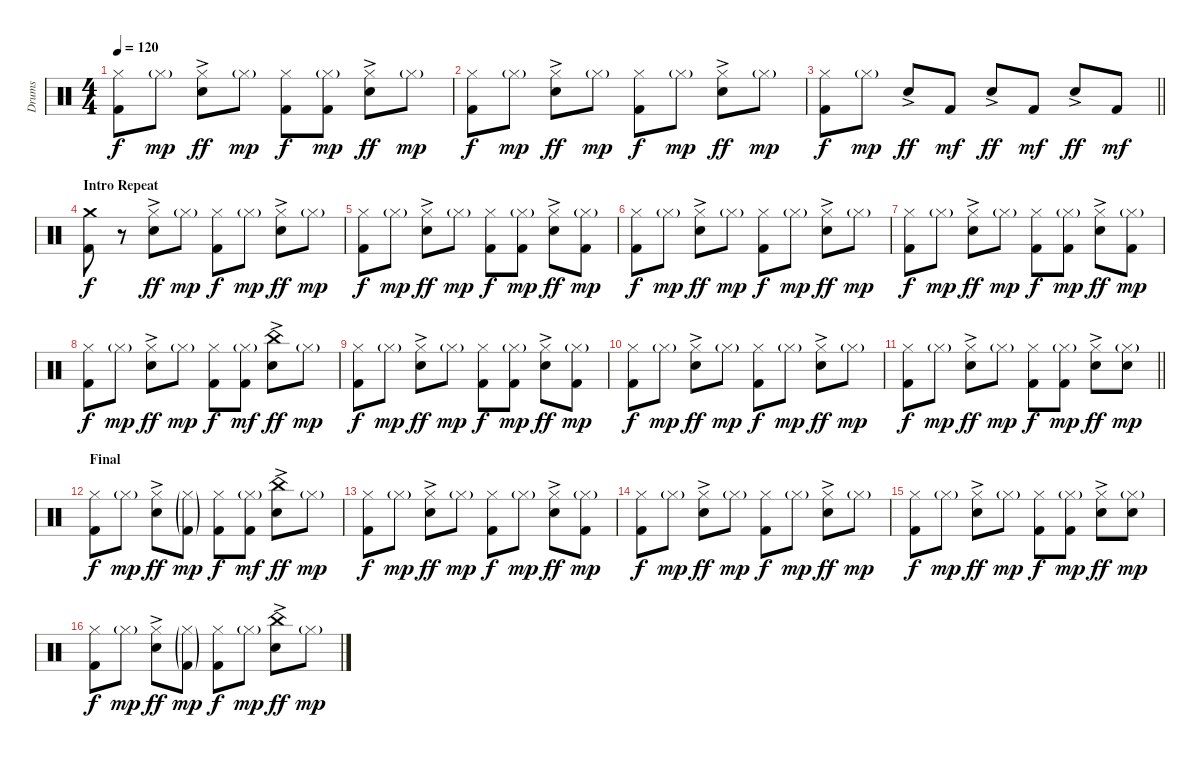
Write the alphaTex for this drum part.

\track ("Drums" "Drums") {instrument percussion}
\staff {score}
\articulation defaults
\ts (4 4)
\tempo 120
\clef neutral
\ks c
("Hi-Hat (closed)" "Kick (hit) 2").8{dy f} "Hi-Hat (closed)"{g}.8{dy mp} ("Hi-Hat (closed)" "Snare (hit) 2"{ac}).8{dy ff} "Hi-Hat (closed)"{g}.8{dy mp} ("Hi-Hat (closed)" "Kick (hit) 2").8{dy f} ("Hi-Hat (closed)"{g} "Kick (hit) 2").8{dy mp} ("Hi-Hat (closed)" "Snare (hit) 2"{ac}).8{dy ff} "Hi-Hat (closed)"{g}.8{dy mp} |
("Hi-Hat (closed)" "Kick (hit) 2").8{dy f} "Hi-Hat (closed)"{g}.8{dy mp} ("Hi-Hat (closed)" "Snare (hit) 2"{ac}).8{dy ff} "Hi-Hat (closed)"{g}.8{dy mp} ("Hi-Hat (closed)" "Kick (hit) 2").8{dy f} "Hi-Hat (closed)"{g}.8{dy mp} ("Hi-Hat (closed)" "Snare (hit) 2"{ac}).8{dy ff} "Hi-Hat (closed)"{g}.8{dy mp} |
\barLineRight lightlight
("Hi-Hat (closed)" "Kick (hit) 2").8{dy f} "Hi-Hat (closed)"{g}.8{dy mp} "Snare (hit) 2"{ac}.8{dy ff} "Kick (hit) 2".8{dy mf} "Snare (hit) 2"{ac}.8{dy ff} "Kick (hit) 2".8{dy mf} "Snare (hit) 2"{ac}.8{dy ff} "Kick (hit) 2".8{dy mf} |
\section ("" "Intro Repeat")
("Crash medium (hit)" "Kick (hit) 2").8{dy f} r.8 ("Hi-Hat (closed)" "Snare (hit) 2"{ac}).8{dy ff} "Hi-Hat (closed)"{g}.8{dy mp} ("Hi-Hat (closed)" "Kick (hit) 2").8{dy f} "Hi-Hat (closed)"{g}.8{dy mp} ("Hi-Hat (closed)" "Snare (hit) 2"{ac}).8{dy ff} "Hi-Hat (closed)"{g}.8{dy mp} |
("Hi-Hat (closed)" "Kick (hit) 2").8{dy f} "Hi-Hat (closed)"{g}.8{dy mp} ("Hi-Hat (closed)" "Snare (hit) 2"{ac}).8{dy ff} "Hi-Hat (closed)"{g}.8{dy mp} ("Hi-Hat (closed)" "Kick (hit) 2").8{dy f} ("Hi-Hat (closed)"{g} "Kick (hit) 2").8{dy mp} ("Hi-Hat (closed)" "Snare (hit) 2"{ac}).8{dy ff} ("Hi-Hat (closed)"{g} "Kick (hit) 2").8{dy mp} |
("Hi-Hat (closed)" "Kick (hit) 2").8{dy f} "Hi-Hat (closed)"{g}.8{dy mp} ("Hi-Hat (closed)" "Snare (hit) 2"{ac}).8{dy ff} "Hi-Hat (closed)"{g}.8{dy mp} ("Hi-Hat (closed)" "Kick (hit) 2").8{dy f} "Hi-Hat (closed)"{g}.8{dy mp} ("Hi-Hat (closed)" "Snare (hit) 2"{ac}).8{dy ff} "Hi-Hat (closed)"{g}.8{dy mp} |
("Hi-Hat (closed)" "Kick (hit) 2").8{dy f} "Hi-Hat (closed)"{g}.8{dy mp} ("Hi-Hat (closed)" "Snare (hit) 2"{ac}).8{dy ff} "Hi-Hat (closed)"{g}.8{dy mp} ("Hi-Hat (closed)" "Kick (hit) 2").8{dy f} ("Hi-Hat (closed)"{g} "Kick (hit) 2").8{dy mp} ("Hi-Hat (closed)" "Snare (hit) 2"{ac}).8{dy ff} ("Hi-Hat (closed)"{g} "Kick (hit) 2").8{dy mp} |
("Hi-Hat (closed)" "Kick (hit) 2").8{dy f} "Hi-Hat (closed)"{g}.8{dy mp} ("Hi-Hat (closed)" "Snare (hit) 2"{ac}).8{dy ff} "Hi-Hat (closed)"{g}.8{dy mp} ("Hi-Hat (closed)" "Kick (hit) 2").8{dy f} ("Hi-Hat (closed)"{g} "Kick (hit) 2").8{dy mf} ("China (hit)" "Snare (hit) 2"{ac}).8{dy ff} "Hi-Hat (closed)"{g}.8{dy mp} |
("Hi-Hat (closed)" "Kick (hit) 2").8{dy f} "Hi-Hat (closed)"{g}.8{dy mp} ("Hi-Hat (closed)" "Snare (hit) 2"{ac}).8{dy ff} "Hi-Hat (closed)"{g}.8{dy mp} ("Hi-Hat (closed)" "Kick (hit) 2").8{dy f} ("Hi-Hat (closed)"{g} "Kick (hit) 2").8{dy mp} ("Hi-Hat (closed)" "Snare (hit) 2"{ac}).8{dy ff} ("Hi-Hat (closed)"{g} "Kick (hit) 2").8{dy mp} |
("Hi-Hat (closed)" "Kick (hit) 2").8{dy f} "Hi-Hat (closed)"{g}.8{dy mp} ("Hi-Hat (closed)" "Snare (hit) 2"{ac}).8{dy ff} "Hi-Hat (closed)"{g}.8{dy mp} ("Hi-Hat (closed)" "Kick (hit) 2").8{dy f} "Hi-Hat (closed)"{g}.8{dy mp} ("Hi-Hat (closed)" "Snare (hit) 2"{ac}).8{dy ff} "Hi-Hat (closed)"{g}.8{dy mp} |
\barLineRight lightlight
("Hi-Hat (closed)" "Kick (hit) 2").8{dy f} "Hi-Hat (closed)"{g}.8{dy mp} ("Hi-Hat (closed)" "Snare (hit) 2"{ac}).8{dy ff} "Hi-Hat (closed)"{g}.8{dy mp} ("Hi-Hat (closed)" "Kick (hit) 2").8{dy f} ("Hi-Hat (closed)"{g} "Kick (hit) 2").8{dy mp} ("Hi-Hat (closed)" "Snare (hit) 2"{ac}).8{dy ff} ("Hi-Hat (closed)"{g} "Snare (hit) 2").8{dy mp} |
\section ("" "Final")
("Hi-Hat (closed)" "Kick (hit) 2").8{dy f} "Hi-Hat (closed)"{g}.8{dy mp} ("Hi-Hat (closed)" "Snare (hit) 2"{ac}).8{dy ff} ("Hi-Hat (closed)"{g} "Kick (hit) 2"{g}).8{dy mp} ("Hi-Hat (closed)" "Kick (hit) 2").8{dy f} ("Hi-Hat (closed)"{g} "Kick (hit) 2").8{dy mf} ("China (hit)" "Snare (hit) 2"{ac}).8{dy ff} "Hi-Hat (closed)"{g}.8{dy mp} |
("Hi-Hat (closed)" "Kick (hit) 2").8{dy f} "Hi-Hat (closed)"{g}.8{dy mp} ("Hi-Hat (closed)" "Snare (hit) 2"{ac}).8{dy ff} "Hi-Hat (closed)"{g}.8{dy mp} ("Hi-Hat (closed)" "Kick (hit) 2").8{dy f} "Hi-Hat (closed)"{g}.8{dy mp} ("Hi-Hat (closed)" "Snare (hit) 2"{ac}).8{dy ff} ("Hi-Hat (closed)"{g} "Kick (hit) 2").8{dy mp} |
("Hi-Hat (closed)" "Kick (hit) 2").8{dy f} "Hi-Hat (closed)"{g}.8{dy mp} ("Hi-Hat (closed)" "Snare (hit) 2"{ac}).8{dy ff} "Hi-Hat (closed)"{g}.8{dy mp} ("Hi-Hat (closed)" "Kick (hit) 2").8{dy f} "Hi-Hat (closed)"{g}.8{dy mp} ("Hi-Hat (closed)" "Snare (hit) 2"{ac}).8{dy ff} "Hi-Hat (closed)"{g}.8{dy mp} |
("Hi-Hat (closed)" "Kick (hit) 2").8{dy f} "Hi-Hat (closed)"{g}.8{dy mp} ("Hi-Hat (closed)" "Snare (hit) 2"{ac}).8{dy ff} "Hi-Hat (closed)"{g}.8{dy mp} ("Hi-Hat (closed)" "Kick (hit) 2").8{dy f} ("Hi-Hat (closed)"{g} "Kick (hit) 2").8{dy mp} ("Hi-Hat (closed)" "Snare (hit) 2"{ac}).8{dy ff} ("Hi-Hat (closed)"{g} "Snare (hit) 2").8{dy mp} |
("Hi-Hat (closed)" "Kick (hit) 2").8{dy f} "Hi-Hat (closed)"{g}.8{dy mp} ("Hi-Hat (closed)" "Snare (hit) 2"{ac}).8{dy ff} ("Hi-Hat (closed)"{g} "Kick (hit) 2"{g}).8{dy mp} ("Hi-Hat (closed)" "Kick (hit) 2").8{dy f} "Hi-Hat (closed)"{g}.8{dy mp} ("China (hit)" "Snare (hit) 2"{ac}).8{dy ff} "Hi-Hat (closed)"{g}.8{dy mp}
